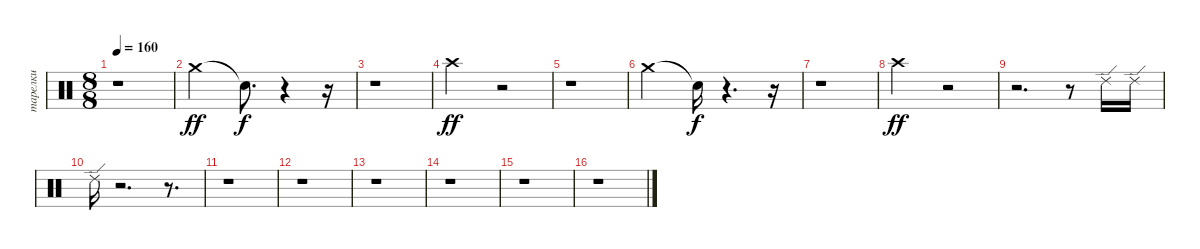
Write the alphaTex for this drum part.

\track ("тарелки" "тарелки") {instrument percussion}
\staff {score}
\articulation defaults
\ts (8 8)
\tempo 160
\clef neutral
\ks c
r.1{dy ff} |
"Crash medium (hit)".2 "Snare (hit)"{t}.8{d dy f} r.4 r.16 |
r.1 |
"Crash high (hit)".2{dy ff} r.2 |
r.1 |
"Crash medium (hit)".2 "Snare (hit)"{t}.16{dy f} r.4{d} r.16 |
r.1 |
"Crash high (hit)".2{dy ff} r.2 |
r.2{d} r.8 "Ride (edge) 2".16 "Ride (edge) 2".16 |
"Ride (edge) 2".16 r.2{d} r.8{d} |
r.1 |
r.1 |
r.1 |
r.1 |
r.1 |
r.1
